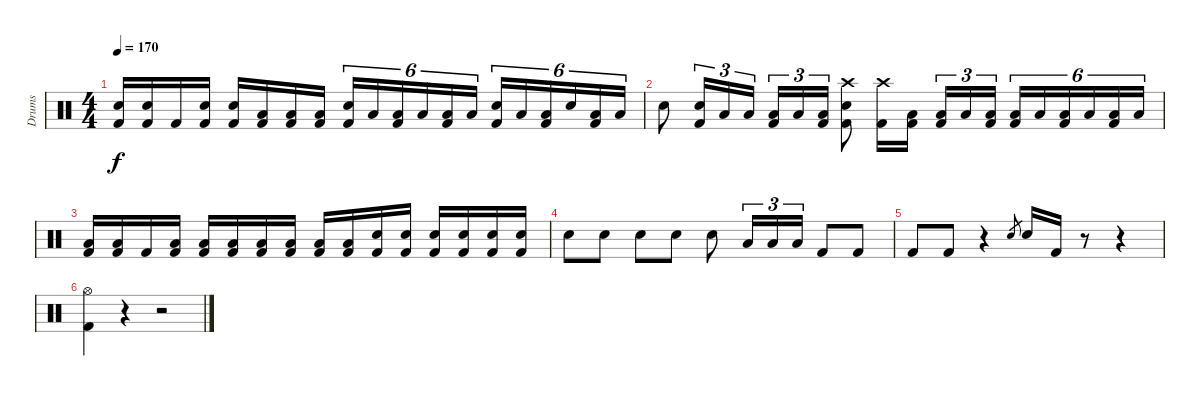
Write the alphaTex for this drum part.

\track ("Drums" "Drums") {instrument percussion}
\staff {score}
\articulation defaults
\ts (4 4)
\tempo 170
\clef neutral
\ks c
("Snare (hit) 2" "Kick (hit) 2").16{dy f} ("Snare (hit) 2" "Kick (hit) 2").16 "Kick (hit) 2".16 ("Snare (hit) 2" "Kick (hit) 2").16 ("Snare (hit) 2" "Kick (hit) 2").16 ("Low Tom (hit)" "Kick (hit) 2").16 ("Low Floor Tom (hit)" "Kick (hit) 2").16 ("Low Floor Tom (hit)" "Kick (hit) 2").16 ("Snare (hit) 2" "Kick (hit) 2").16{tu (6 4)} "Low Tom (hit)".16{tu (6 4)} ("Low Floor Tom (hit)" "Kick (hit) 2").16{tu (6 4)} "Low Floor Tom (hit)".16{tu (6 4)} ("Low Floor Tom (hit)" "Kick (hit) 2").16{tu (6 4)} "Low Floor Tom (hit)".16{tu (6 4)} ("Snare (hit) 2" "Kick (hit) 2").16{tu (6 4)} "Low Floor Tom (hit)".16{tu (6 4)} ("Low Floor Tom (hit)" "Kick (hit) 2").16{tu (6 4)} "Snare (hit) 2".16{tu (6 4)} ("Low Floor Tom (hit)" "Kick (hit) 2").16{tu (6 4)} "Low Floor Tom (hit)".16{tu (6 4)} |
"Snare (hit) 2".8 ("Snare (hit) 2" "Kick (hit) 2").16{tu (3 2)} "Low Tom (hit)".16{tu (3 2)} "Low Floor Tom (hit)".16{tu (3 2)} ("Low Floor Tom (hit)" "Kick (hit) 2").16{tu (3 2)} "Low Floor Tom (hit)".16{tu (3 2)} ("Low Floor Tom (hit)" "Kick (hit) 2").16{tu (3 2)} ("Crash high (hit)" "Snare (hit) 2" "Kick (hit) 2").8 ("Crash high (hit)" "Kick (hit) 2").16 ("Low Tom (hit)" "Kick (hit) 2").16 ("Low Floor Tom (hit)" "Kick (hit) 2").16{tu (3 2)} "Low Floor Tom (hit)".16{tu (3 2)} ("Low Floor Tom (hit)" "Kick (hit) 2").16{tu (3 2)} ("Low Floor Tom (hit)" "Kick (hit) 2").16{tu (6 4)} "Low Floor Tom (hit)".16{tu (6 4)} ("Low Floor Tom (hit)" "Kick (hit) 2").16{tu (6 4)} "Low Floor Tom (hit)".16{tu (6 4)} ("Low Floor Tom (hit)" "Kick (hit) 2").16{tu (6 4)} "Low Floor Tom (hit)".16{tu (6 4)} |
("Low Floor Tom (hit)" "Kick (hit) 2").16 ("Low Floor Tom (hit)" "Kick (hit) 2").16 "Kick (hit) 2".16 ("Low Floor Tom (hit)" "Kick (hit) 2").16 ("Low Floor Tom (hit)" "Kick (hit) 2").16 ("Low Floor Tom (hit)" "Kick (hit) 2").16 ("Low Floor Tom (hit)" "Kick (hit) 2").16 ("Low Tom (hit)" "Kick (hit) 2").16 ("Low Floor Tom (hit)" "Kick (hit) 2").16 ("Low Floor Tom (hit)" "Kick (hit) 2").16 ("Snare (hit) 2" "Kick (hit) 2").16 ("Snare (hit) 2" "Kick (hit) 2").16 ("Snare (hit) 2" "Kick (hit) 2").16 ("Snare (hit) 2" "Kick (hit) 2").16 ("Snare (hit) 2" "Kick (hit) 2").16 ("Snare (hit) 2" "Kick (hit) 2").16 |
"Snare (hit) 2".8 "Snare (hit) 2".8 "Snare (hit) 2".8 "Snare (hit) 2".8 "Snare (hit) 2".8 "Low Tom (hit)".16{tu (3 2)} "Low Floor Tom (hit)".16{tu (3 2)} "Low Floor Tom (hit)".16{tu (3 2)} "Kick (hit) 2".8 "Kick (hit) 2".8 |
"Kick (hit) 2".8 "Kick (hit) 2".8 r.4 "Snare (hit) 2".8{gr} "Snare (hit) 2".16 "Kick (hit) 2".16 r.8 r.4 |
("Hi-Hat (open)" "Kick (hit) 2").4 r.4 r.2
